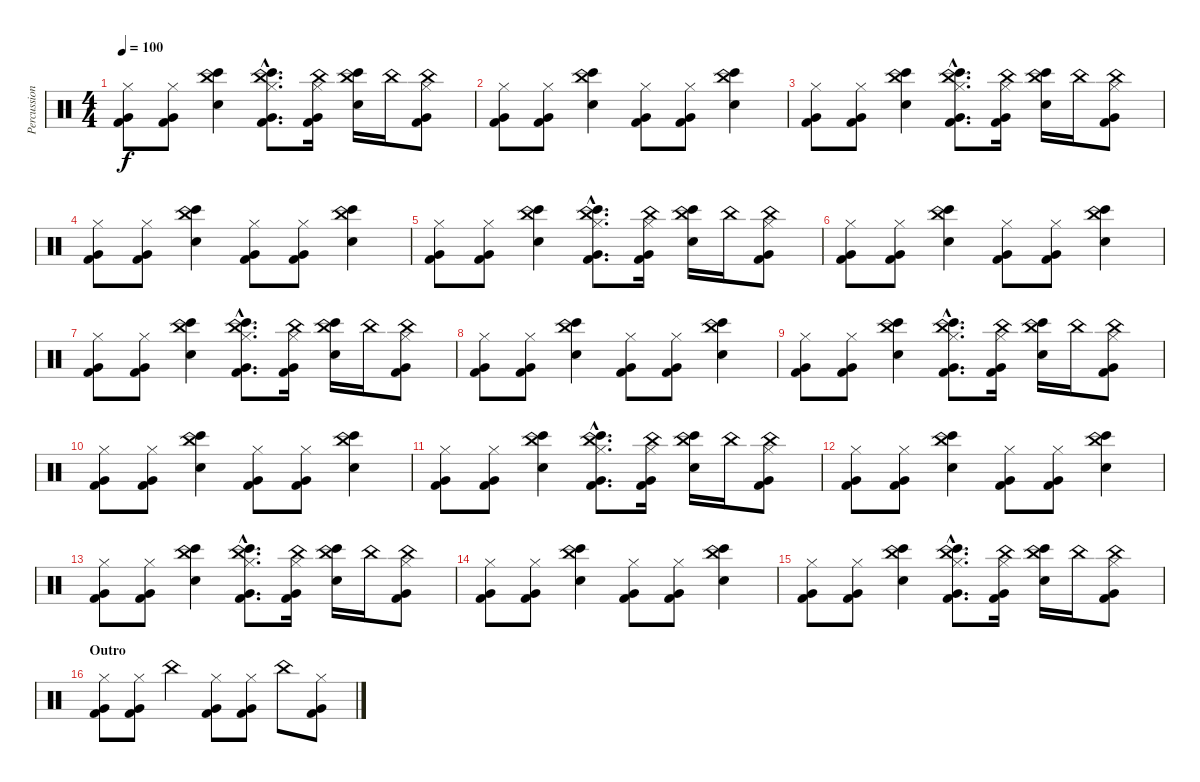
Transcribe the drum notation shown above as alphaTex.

\track ("Percussion" "Percussion") {instrument percussion}
\staff {score}
\articulation defaults
\ts (4 4)
\tempo 100
\clef neutral
\ks c
("Hi-Hat (closed)" "Kick (hit) 2" "Very Low Tom (hit)").8{dy f} ("Hi-Hat (closed)" "Very Low Tom (hit)" "Kick (hit) 2").8 ("Bongo High (hit)" "China (hit)" "Hand Clap (hit)").4 ("China (hit)"{hac} "Bongo High (hit)" "Hi-Hat (closed)"{hac} "Kick (hit) 2"{hac} "Very Low Tom (hit)"{hac}).8{d} ("China (hit)" "Hi-Hat (closed)" "Kick (hit) 2" "Very Low Tom (hit)").16 ("Bongo High (hit)" "China (hit)" "Hand Clap (hit)").16 "China (hit)".16 ("China (hit)" "Hi-Hat (closed)" "Kick (hit) 2" "Very Low Tom (hit)").8 |
("Hi-Hat (closed)" "Kick (hit) 2" "Very Low Tom (hit)").8 ("Hi-Hat (closed)" "Very Low Tom (hit)" "Kick (hit) 2").8 ("Bongo High (hit)" "China (hit)" "Hand Clap (hit)").4 ("Hi-Hat (closed)" "Kick (hit) 2" "Very Low Tom (hit)").8 ("Hi-Hat (closed)" "Very Low Tom (hit)" "Kick (hit) 2").8 ("Hand Clap (hit)" "Bongo High (hit)" "China (hit)").4 |
("Hi-Hat (closed)" "Kick (hit) 2" "Very Low Tom (hit)").8 ("Hi-Hat (closed)" "Very Low Tom (hit)" "Kick (hit) 2").8 ("Bongo High (hit)" "China (hit)" "Hand Clap (hit)").4 ("China (hit)"{hac} "Bongo High (hit)" "Hi-Hat (closed)"{hac} "Kick (hit) 2"{hac} "Very Low Tom (hit)"{hac}).8{d} ("China (hit)" "Hi-Hat (closed)" "Kick (hit) 2" "Very Low Tom (hit)").16 ("Bongo High (hit)" "China (hit)" "Hand Clap (hit)").16 "China (hit)".16 ("China (hit)" "Hi-Hat (closed)" "Kick (hit) 2" "Very Low Tom (hit)").8 |
("Hi-Hat (closed)" "Kick (hit) 2" "Very Low Tom (hit)").8 ("Hi-Hat (closed)" "Very Low Tom (hit)" "Kick (hit) 2").8 ("Bongo High (hit)" "China (hit)" "Hand Clap (hit)").4 ("Hi-Hat (closed)" "Kick (hit) 2" "Very Low Tom (hit)").8 ("Hi-Hat (closed)" "Very Low Tom (hit)" "Kick (hit) 2").8 ("Hand Clap (hit)" "Bongo High (hit)" "China (hit)").4 |
("Hi-Hat (closed)" "Kick (hit) 2" "Very Low Tom (hit)").8 ("Hi-Hat (closed)" "Very Low Tom (hit)" "Kick (hit) 2").8 ("Bongo High (hit)" "China (hit)" "Hand Clap (hit)").4 ("China (hit)"{hac} "Bongo High (hit)" "Hi-Hat (closed)"{hac} "Kick (hit) 2"{hac} "Very Low Tom (hit)"{hac}).8{d} ("China (hit)" "Hi-Hat (closed)" "Kick (hit) 2" "Very Low Tom (hit)").16 ("Hand Clap (hit)" "Bongo High (hit)" "China (hit)").16 "China (hit)".16 ("China (hit)" "Hi-Hat (closed)" "Kick (hit) 2" "Very Low Tom (hit)").8 |
("Hi-Hat (closed)" "Kick (hit) 2" "Very Low Tom (hit)").8 ("Hi-Hat (closed)" "Very Low Tom (hit)" "Kick (hit) 2").8 ("Bongo High (hit)" "China (hit)" "Hand Clap (hit)").4 ("Hi-Hat (closed)" "Kick (hit) 2" "Very Low Tom (hit)").8 ("Hi-Hat (closed)" "Very Low Tom (hit)" "Kick (hit) 2").8 ("Bongo High (hit)" "China (hit)" "Hand Clap (hit)").4 |
("Hi-Hat (closed)" "Kick (hit) 2" "Very Low Tom (hit)").8 ("Hi-Hat (closed)" "Very Low Tom (hit)" "Kick (hit) 2").8 ("Bongo High (hit)" "China (hit)" "Hand Clap (hit)").4 ("China (hit)"{hac} "Bongo High (hit)" "Hi-Hat (closed)"{hac} "Kick (hit) 2"{hac} "Very Low Tom (hit)"{hac}).8{d} ("China (hit)" "Hi-Hat (closed)" "Kick (hit) 2" "Very Low Tom (hit)").16 ("Bongo High (hit)" "China (hit)" "Hand Clap (hit)").16 "China (hit)".16 ("China (hit)" "Hi-Hat (closed)" "Kick (hit) 2" "Very Low Tom (hit)").8 |
("Hi-Hat (closed)" "Kick (hit) 2" "Very Low Tom (hit)").8 ("Hi-Hat (closed)" "Very Low Tom (hit)" "Kick (hit) 2").8 ("Bongo High (hit)" "China (hit)" "Hand Clap (hit)").4 ("Hi-Hat (closed)" "Kick (hit) 2" "Very Low Tom (hit)").8 ("Hi-Hat (closed)" "Very Low Tom (hit)" "Kick (hit) 2").8 ("Hand Clap (hit)" "Bongo High (hit)" "China (hit)").4 |
("Hi-Hat (closed)" "Kick (hit) 2" "Very Low Tom (hit)").8 ("Hi-Hat (closed)" "Very Low Tom (hit)" "Kick (hit) 2").8 ("Bongo High (hit)" "China (hit)" "Hand Clap (hit)").4 ("China (hit)"{hac} "Bongo High (hit)" "Hi-Hat (closed)"{hac} "Kick (hit) 2"{hac} "Very Low Tom (hit)"{hac}).8{d} ("China (hit)" "Hi-Hat (closed)" "Kick (hit) 2" "Very Low Tom (hit)").16 ("Hand Clap (hit)" "Bongo High (hit)" "China (hit)").16 "China (hit)".16 ("China (hit)" "Hi-Hat (closed)" "Kick (hit) 2" "Very Low Tom (hit)").8 |
("Hi-Hat (closed)" "Kick (hit) 2" "Very Low Tom (hit)").8 ("Hi-Hat (closed)" "Very Low Tom (hit)" "Kick (hit) 2").8 ("Bongo High (hit)" "China (hit)" "Hand Clap (hit)").4 ("Hi-Hat (closed)" "Kick (hit) 2" "Very Low Tom (hit)").8 ("Hi-Hat (closed)" "Very Low Tom (hit)" "Kick (hit) 2").8 ("Bongo High (hit)" "China (hit)" "Hand Clap (hit)").4 |
("Hi-Hat (closed)" "Kick (hit) 2" "Very Low Tom (hit)").8 ("Hi-Hat (closed)" "Very Low Tom (hit)" "Kick (hit) 2").8 ("Bongo High (hit)" "China (hit)" "Hand Clap (hit)").4 ("China (hit)"{hac} "Bongo High (hit)" "Hi-Hat (closed)"{hac} "Kick (hit) 2"{hac} "Very Low Tom (hit)"{hac}).8{d} ("China (hit)" "Hi-Hat (closed)" "Kick (hit) 2" "Very Low Tom (hit)").16 ("Bongo High (hit)" "China (hit)" "Hand Clap (hit)").16 "China (hit)".16 ("China (hit)" "Hi-Hat (closed)" "Kick (hit) 2" "Very Low Tom (hit)").8 |
("Hi-Hat (closed)" "Kick (hit) 2" "Very Low Tom (hit)").8 ("Hi-Hat (closed)" "Very Low Tom (hit)" "Kick (hit) 2").8 ("Hand Clap (hit)" "Bongo High (hit)" "China (hit)").4 ("Hi-Hat (closed)" "Kick (hit) 2" "Very Low Tom (hit)").8 ("Hi-Hat (closed)" "Very Low Tom (hit)" "Kick (hit) 2").8 ("Bongo High (hit)" "China (hit)" "Hand Clap (hit)").4 |
("Hi-Hat (closed)" "Kick (hit) 2" "Very Low Tom (hit)").8 ("Hi-Hat (closed)" "Very Low Tom (hit)" "Kick (hit) 2").8 ("Bongo High (hit)" "China (hit)" "Hand Clap (hit)").4 ("China (hit)"{hac} "Bongo High (hit)" "Hi-Hat (closed)"{hac} "Kick (hit) 2"{hac} "Very Low Tom (hit)"{hac}).8{d} ("China (hit)" "Hi-Hat (closed)" "Kick (hit) 2" "Very Low Tom (hit)").16 ("Bongo High (hit)" "China (hit)" "Hand Clap (hit)").16 "China (hit)".16 ("China (hit)" "Hi-Hat (closed)" "Kick (hit) 2" "Very Low Tom (hit)").8 |
("Hi-Hat (closed)" "Kick (hit) 2" "Very Low Tom (hit)").8 ("Hi-Hat (closed)" "Very Low Tom (hit)" "Kick (hit) 2").8 ("Bongo High (hit)" "China (hit)" "Hand Clap (hit)").4 ("Hi-Hat (closed)" "Kick (hit) 2" "Very Low Tom (hit)").8 ("Hi-Hat (closed)" "Very Low Tom (hit)" "Kick (hit) 2").8 ("Hand Clap (hit)" "Bongo High (hit)" "China (hit)").4 |
("Hi-Hat (closed)" "Kick (hit) 2" "Very Low Tom (hit)").8 ("Hi-Hat (closed)" "Very Low Tom (hit)" "Kick (hit) 2").8 ("Bongo High (hit)" "China (hit)" "Hand Clap (hit)").4 ("China (hit)"{hac} "Bongo High (hit)" "Hi-Hat (closed)"{hac} "Kick (hit) 2"{hac} "Very Low Tom (hit)"{hac}).8{d} ("China (hit)" "Hi-Hat (closed)" "Kick (hit) 2" "Very Low Tom (hit)").16 ("Bongo High (hit)" "China (hit)" "Hand Clap (hit)").16 "China (hit)".16 ("China (hit)" "Hi-Hat (closed)" "Kick (hit) 2" "Very Low Tom (hit)").8 |
\section ("" "Outro")
("Hi-Hat (closed)" "Very Low Tom (hit)" "Kick (hit) 2").8 ("Hi-Hat (closed)" "Kick (hit) 2" "Very Low Tom (hit)").8 "China (hit)".4 ("Hi-Hat (closed)" "Kick (hit) 2" "Very Low Tom (hit)").8 ("Hi-Hat (closed)" "Very Low Tom (hit)" "Kick (hit) 2").8 "China (hit)".8 ("Hi-Hat (closed)" "Kick (hit) 2" "Very Low Tom (hit)").8
